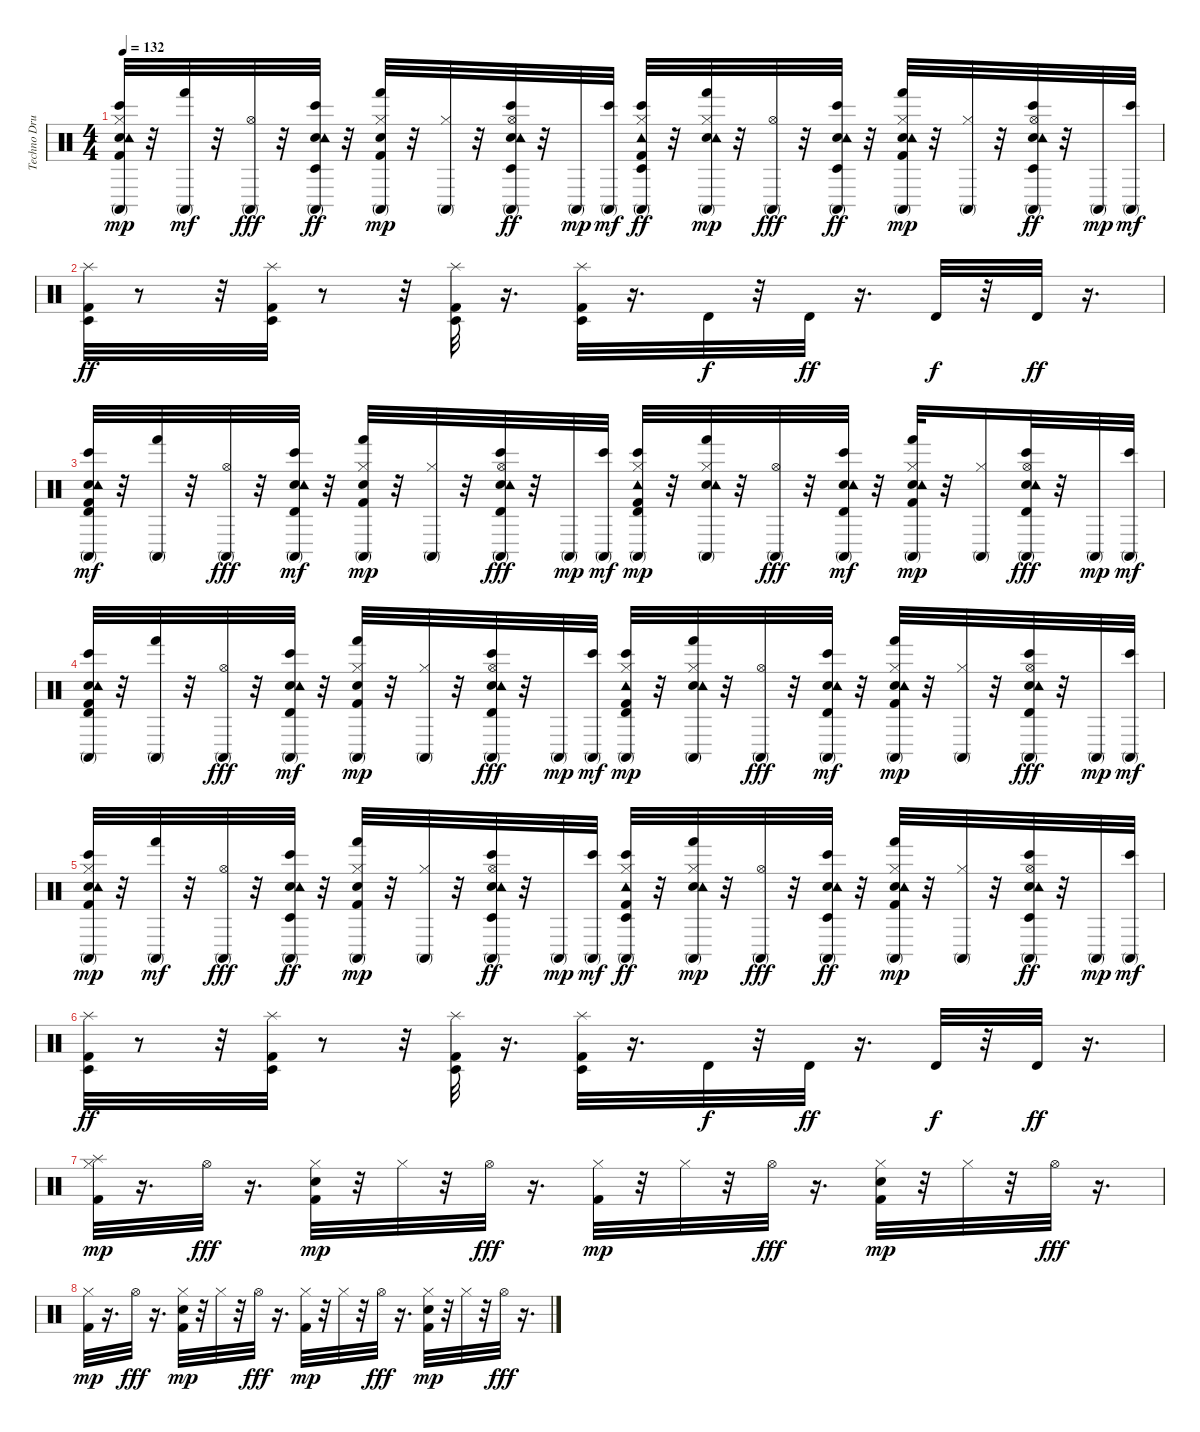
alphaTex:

\track ("Techno Drums" "Techno Dru") {instrument percussion}
\staff {score}
\articulation defaults
\ts (4 4)
\tempo 132
\clef neutral
\ks c
("Kick (hit) 2" "Hand Clap (hit)" "Tambourine (hit)" "Conga high (mute)" "Bongo High (hit)" "Hi-Hat (closed)").32{dy mp} r.32 ("Conga high (mute)" "Hand (hit)").32{dy mf} r.32 ("Conga high (mute)" "Hi-Hat (open)").32{dy fff} r.32 ("Hand Clap (hit)" "Tambourine (hit)" "Conga high (mute)" "Bongo High (hit)" "Timbale low (hit)").32{dy ff} r.32 ("Kick (hit) 2" "Hand Clap (hit)" "Conga high (mute)" "Hand (hit)" "Hi-Hat (closed)").32{dy mp} r.32 ("Conga high (mute)" "Hi-Hat (closed)").32 r.32 ("Hand Clap (hit)" "Tambourine (hit)" "Conga high (mute)" "Bongo High (hit)" "Hi-Hat (open)" "Timbale low (hit)").32{dy ff} r.32 "Conga high (mute)".32{dy mp} ("Conga high (mute)" "Bongo High (hit)").32{dy mf} ("Kick (hit) 2" "Tambourine (hit)" "Conga high (mute)" "Bongo High (hit)" "Hi-Hat (closed)" "Timbale low (hit)").32{dy ff} r.32 ("Hand Clap (hit)" "Tambourine (hit)" "Conga high (mute)" "Hand (hit)" "Hi-Hat (closed)").32{dy mp} r.32 ("Conga high (mute)" "Hi-Hat (open)").32{dy fff} r.32 ("Hand Clap (hit)" "Tambourine (hit)" "Conga high (mute)" "Bongo High (hit)" "Timbale low (hit)").32{dy ff} r.32 ("Kick (hit) 2" "Hand Clap (hit)" "Tambourine (hit)" "Conga high (mute)" "Hand (hit)" "Hi-Hat (closed)").32{dy mp} r.32 ("Conga high (mute)" "Hi-Hat (closed)").32 r.32 ("Hand Clap (hit)" "Tambourine (hit)" "Conga high (mute)" "Bongo High (hit)" "Hi-Hat (open)" "Timbale low (hit)").32{dy ff} r.32 "Conga high (mute)".32{dy mp} ("Conga high (mute)" "Bongo High (hit)").32{dy mf} |
("Kick (hit) 2" "Timbale low (hit)" "Splash (hit)").32{dy ff} r.8 r.32 ("Kick (hit) 2" "Timbale low (hit)" "Splash (hit)").32 r.8 r.32 ("Kick (hit) 2" "Timbale low (hit)" "Splash (hit)").32 r.16{d} ("Timbale low (hit)" "Splash (hit)" "Kick (hit) 2").32 r.16{d} "Timbale high (hit)".32{dy f} r.32 "Timbale high (hit)".32{dy ff} r.16{d} "Timbale high (hit)".32{dy f} r.32 "Timbale high (hit)".32{dy ff} r.16{d} |
("Kick (hit) 2" "Hand Clap (hit)" "Tambourine (hit)" "Conga high (mute)" "Bongo High (hit)" "Timbale high (hit)").32{dy mf} r.32 ("Conga high (mute)" "Hand (hit)").32 r.32 ("Conga high (mute)" "Hi-Hat (open)").32{dy fff} r.32 ("Hand Clap (hit)" "Tambourine (hit)" "Conga high (mute)" "Bongo High (hit)" "Timbale high (hit)").32{dy mf} r.32 ("Kick (hit) 2" "Hand Clap (hit)" "Conga high (mute)" "Hand (hit)" "Hi-Hat (closed)").32{dy mp} r.32 ("Conga high (mute)" "Hi-Hat (closed)").32 r.32 ("Hand Clap (hit)" "Tambourine (hit)" "Conga high (mute)" "Bongo High (hit)" "Timbale high (hit)" "Hi-Hat (open)").32{dy fff} r.32 "Conga high (mute)".32{dy mp} ("Conga high (mute)" "Bongo High (hit)").32{dy mf} ("Kick (hit) 2" "Tambourine (hit)" "Conga high (mute)" "Bongo High (hit)" "Timbale high (hit)" "Hi-Hat (closed)").32{dy mp} r.32 ("Hand Clap (hit)" "Tambourine (hit)" "Conga high (mute)" "Hand (hit)" "Hi-Hat (closed)").32 r.32 ("Conga high (mute)" "Hi-Hat (open)").32{dy fff} r.32 ("Hand Clap (hit)" "Tambourine (hit)" "Conga high (mute)" "Bongo High (hit)" "Timbale high (hit)").32{dy mf} r.32 ("Kick (hit) 2" "Hand Clap (hit)" "Tambourine (hit)" "Conga high (mute)" "Hand (hit)" "Hi-Hat (closed)").32{dy mp} r.32 ("Conga high (mute)" "Hi-Hat (closed)").16 ("Hand Clap (hit)" "Tambourine (hit)" "Conga high (mute)" "Bongo High (hit)" "Timbale high (hit)" "Hi-Hat (open)").32{dy fff} r.32 "Conga high (mute)".32{dy mp} ("Conga high (mute)" "Bongo High (hit)").32{dy mf} |
("Kick (hit) 2" "Hand Clap (hit)" "Tambourine (hit)" "Conga high (mute)" "Bongo High (hit)" "Timbale high (hit)").32 r.32 ("Conga high (mute)" "Hand (hit)").32 r.32 ("Conga high (mute)" "Hi-Hat (open)").32{dy fff} r.32 ("Hand Clap (hit)" "Tambourine (hit)" "Conga high (mute)" "Bongo High (hit)" "Timbale high (hit)").32{dy mf} r.32 ("Kick (hit) 2" "Hand Clap (hit)" "Conga high (mute)" "Hand (hit)" "Hi-Hat (closed)").32{dy mp} r.32 ("Conga high (mute)" "Hi-Hat (closed)").32 r.32 ("Hand Clap (hit)" "Tambourine (hit)" "Conga high (mute)" "Bongo High (hit)" "Timbale high (hit)" "Hi-Hat (open)").32{dy fff} r.32 "Conga high (mute)".32{dy mp} ("Conga high (mute)" "Bongo High (hit)").32{dy mf} ("Kick (hit) 2" "Tambourine (hit)" "Conga high (mute)" "Bongo High (hit)" "Timbale high (hit)" "Hi-Hat (closed)").32{dy mp} r.32 ("Hand Clap (hit)" "Tambourine (hit)" "Conga high (mute)" "Hand (hit)" "Hi-Hat (closed)").32 r.32 ("Conga high (mute)" "Hi-Hat (open)").32{dy fff} r.32 ("Hand Clap (hit)" "Tambourine (hit)" "Conga high (mute)" "Bongo High (hit)" "Timbale high (hit)").32{dy mf} r.32 ("Kick (hit) 2" "Hand Clap (hit)" "Tambourine (hit)" "Conga high (mute)" "Hand (hit)" "Hi-Hat (closed)").32{dy mp} r.32 ("Conga high (mute)" "Hi-Hat (closed)").32 r.32 ("Hand Clap (hit)" "Tambourine (hit)" "Conga high (mute)" "Bongo High (hit)" "Timbale high (hit)" "Hi-Hat (open)").32{dy fff} r.32 "Conga high (mute)".32{dy mp} ("Conga high (mute)" "Bongo High (hit)").32{dy mf} |
("Kick (hit) 2" "Hand Clap (hit)" "Tambourine (hit)" "Conga high (mute)" "Bongo High (hit)" "Hi-Hat (closed)").32{dy mp} r.32 ("Conga high (mute)" "Hand (hit)").32{dy mf} r.32 ("Conga high (mute)" "Hi-Hat (open)").32{dy fff} r.32 ("Hand Clap (hit)" "Tambourine (hit)" "Conga high (mute)" "Bongo High (hit)" "Timbale low (hit)").32{dy ff} r.32 ("Kick (hit) 2" "Hand Clap (hit)" "Conga high (mute)" "Hand (hit)" "Hi-Hat (closed)").32{dy mp} r.32 ("Conga high (mute)" "Hi-Hat (closed)").32 r.32 ("Hand Clap (hit)" "Tambourine (hit)" "Conga high (mute)" "Bongo High (hit)" "Hi-Hat (open)" "Timbale low (hit)").32{dy ff} r.32 "Conga high (mute)".32{dy mp} ("Conga high (mute)" "Bongo High (hit)").32{dy mf} ("Kick (hit) 2" "Tambourine (hit)" "Conga high (mute)" "Bongo High (hit)" "Hi-Hat (closed)" "Timbale low (hit)").32{dy ff} r.32 ("Hand Clap (hit)" "Tambourine (hit)" "Conga high (mute)" "Hand (hit)" "Hi-Hat (closed)").32{dy mp} r.32 ("Conga high (mute)" "Hi-Hat (open)").32{dy fff} r.32 ("Hand Clap (hit)" "Tambourine (hit)" "Conga high (mute)" "Bongo High (hit)" "Timbale low (hit)").32{dy ff} r.32 ("Kick (hit) 2" "Hand Clap (hit)" "Tambourine (hit)" "Conga high (mute)" "Hand (hit)" "Hi-Hat (closed)").32{dy mp} r.32 ("Conga high (mute)" "Hi-Hat (closed)").32 r.32 ("Hand Clap (hit)" "Tambourine (hit)" "Conga high (mute)" "Bongo High (hit)" "Hi-Hat (open)" "Timbale low (hit)").32{dy ff} r.32 "Conga high (mute)".32{dy mp} ("Conga high (mute)" "Bongo High (hit)").32{dy mf} |
("Kick (hit) 2" "Timbale low (hit)" "Splash (hit)").32{dy ff} r.8 r.32 ("Kick (hit) 2" "Timbale low (hit)" "Splash (hit)").32 r.8 r.32 ("Kick (hit) 2" "Timbale low (hit)" "Splash (hit)").32 r.16{d} ("Timbale low (hit)" "Splash (hit)" "Kick (hit) 2").32 r.16{d} "Timbale high (hit)".32{dy f} r.32 "Timbale high (hit)".32{dy ff} r.16{d} "Timbale high (hit)".32{dy f} r.32 "Timbale high (hit)".32{dy ff} r.16{d} |
("Kick (hit) 2" "Hi-Hat (closed)" "Splash (hit)").32{dy mp} r.16{d} "Hi-Hat (open)".32{dy fff} r.16{d} ("Kick (hit) 2" "Hand Clap (hit)" "Hi-Hat (closed)").32{dy mp} r.32 "Hi-Hat (closed)".32 r.32 "Hi-Hat (open)".32{dy fff} r.16{d} ("Kick (hit) 2" "Hi-Hat (closed)").32{dy mp} r.32 "Hi-Hat (closed)".32 r.32 "Hi-Hat (open)".32{dy fff} r.16{d} ("Kick (hit) 2" "Hand Clap (hit)" "Hi-Hat (closed)").32{dy mp} r.32 "Hi-Hat (closed)".32 r.32 "Hi-Hat (open)".32{dy fff} r.16{d} |
("Kick (hit) 2" "Hi-Hat (closed)").32{dy mp} r.16{d} "Hi-Hat (open)".32{dy fff} r.16{d} ("Kick (hit) 2" "Hand Clap (hit)" "Hi-Hat (closed)").32{dy mp} r.32 "Hi-Hat (closed)".32 r.32 "Hi-Hat (open)".32{dy fff} r.16{d} ("Kick (hit) 2" "Hi-Hat (closed)").32{dy mp} r.32 "Hi-Hat (closed)".32 r.32 "Hi-Hat (open)".32{dy fff} r.16{d} ("Kick (hit) 2" "Hand Clap (hit)" "Hi-Hat (closed)").32{dy mp} r.32 "Hi-Hat (closed)".32 r.32 "Hi-Hat (open)".32{dy fff} r.16{d}
